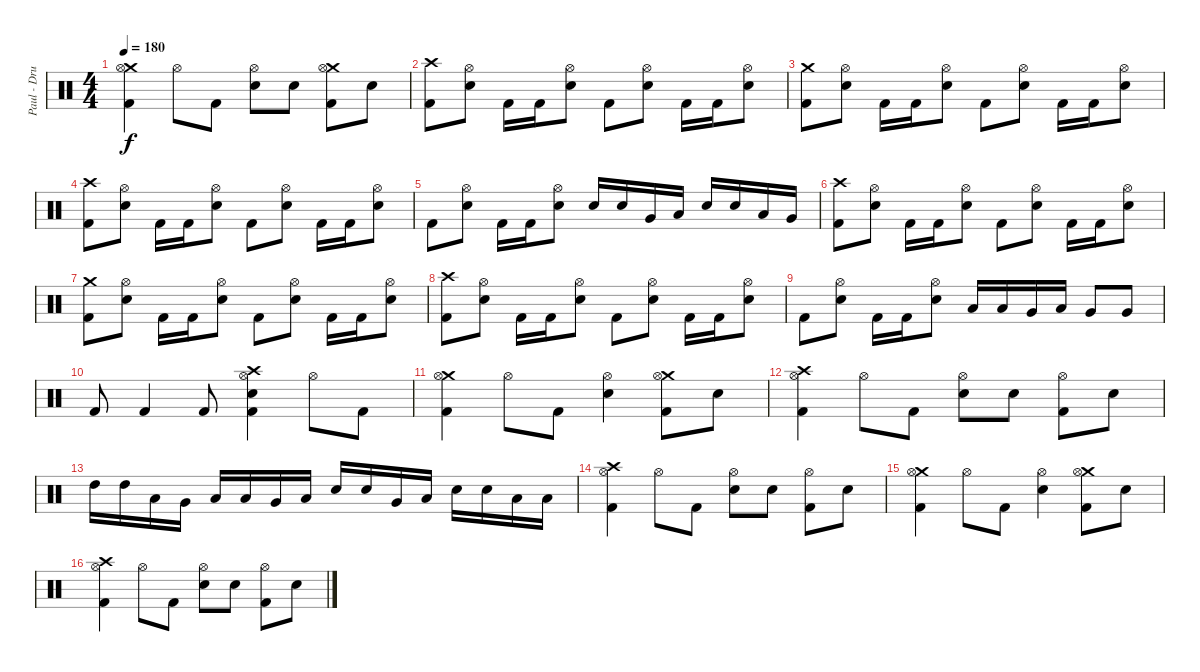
\track ("Paul - Drums" "Paul - Dru") {instrument percussion}
\staff {score}
\articulation defaults
\ts (4 4)
\tempo 180
\clef neutral
\ks c
("Crash medium (hit)" "Hi-Hat (open)" "Kick (hit) 2").4{dy f} "Hi-Hat (open)".8 "Kick (hit) 2".8 ("Hi-Hat (open)" "Electric Snare (hit)").8 "Electric Snare (hit)".8 ("Crash medium (hit)" "Hi-Hat (open)" "Kick (hit) 2").8 "Electric Snare (hit)".8 |
("Crash high (hit)" "Kick (hit) 2").8 ("Hi-Hat (open)" "Electric Snare (hit)").8 "Kick (hit) 2".16 "Kick (hit) 2".16 ("Hi-Hat (open)" "Electric Snare (hit)").8 "Kick (hit) 2".8 ("Hi-Hat (open)" "Electric Snare (hit)").8 "Kick (hit) 2".16 "Kick (hit) 2".16 ("Hi-Hat (open)" "Electric Snare (hit)").8 |
("Crash medium (hit)" "Kick (hit) 2").8 ("Hi-Hat (open)" "Electric Snare (hit)").8 "Kick (hit) 2".16 "Kick (hit) 2".16 ("Hi-Hat (open)" "Electric Snare (hit)").8 "Kick (hit) 2".8 ("Hi-Hat (open)" "Electric Snare (hit)").8 "Kick (hit) 2".16 "Kick (hit) 2".16 ("Hi-Hat (open)" "Electric Snare (hit)").8 |
("Crash high (hit)" "Kick (hit) 2").8 ("Hi-Hat (open)" "Electric Snare (hit)").8 "Kick (hit) 2".16 "Kick (hit) 2".16 ("Hi-Hat (open)" "Electric Snare (hit)").8 "Kick (hit) 2".8 ("Hi-Hat (open)" "Electric Snare (hit)").8 "Kick (hit) 2".16 "Kick (hit) 2".16 ("Hi-Hat (open)" "Electric Snare (hit)").8 |
"Kick (hit) 2".8 ("Hi-Hat (open)" "Electric Snare (hit)").8 "Kick (hit) 2".16 "Kick (hit) 2".16 ("Hi-Hat (open)" "Electric Snare (hit)").8 "Electric Snare (hit)".16 "Electric Snare (hit)".16 "Very Low Tom (hit)".16 "Low Tom (hit)".16 "Electric Snare (hit)".16 "Electric Snare (hit)".16 "Low Tom (hit)".16 "Very Low Tom (hit)".16 |
("Crash high (hit)" "Kick (hit) 2").8 ("Hi-Hat (open)" "Electric Snare (hit)").8 "Kick (hit) 2".16 "Kick (hit) 2".16 ("Hi-Hat (open)" "Electric Snare (hit)").8 "Kick (hit) 2".8 ("Hi-Hat (open)" "Electric Snare (hit)").8 "Kick (hit) 2".16 "Kick (hit) 2".16 ("Hi-Hat (open)" "Electric Snare (hit)").8 |
("Crash medium (hit)" "Kick (hit) 2").8 ("Hi-Hat (open)" "Electric Snare (hit)").8 "Kick (hit) 2".16 "Kick (hit) 2".16 ("Hi-Hat (open)" "Electric Snare (hit)").8 "Kick (hit) 2".8 ("Hi-Hat (open)" "Electric Snare (hit)").8 "Kick (hit) 2".16 "Kick (hit) 2".16 ("Hi-Hat (open)" "Electric Snare (hit)").8 |
("Crash high (hit)" "Kick (hit) 2").8 ("Hi-Hat (open)" "Electric Snare (hit)").8 "Kick (hit) 2".16 "Kick (hit) 2".16 ("Hi-Hat (open)" "Electric Snare (hit)").8 "Kick (hit) 2".8 ("Hi-Hat (open)" "Electric Snare (hit)").8 "Kick (hit) 2".16 "Kick (hit) 2".16 ("Hi-Hat (open)" "Electric Snare (hit)").8 |
"Kick (hit) 2".8 ("Hi-Hat (open)" "Electric Snare (hit)").8 "Kick (hit) 2".16 "Kick (hit) 2".16 ("Hi-Hat (open)" "Electric Snare (hit)").8 "Low Tom (hit)".16 "Low Tom (hit)".16 "Very Low Tom (hit)".16 "Low Floor Tom (hit)".16 "Very Low Tom (hit)".8 "Very Low Tom (hit)".8 |
"Kick (hit) 2".8 "Kick (hit) 2".4 "Kick (hit) 2".8 ("Crash high (hit)" "Hi-Hat (open)" "Electric Snare (hit)" "Kick (hit) 2").4 "Hi-Hat (open)".8 "Kick (hit) 2".8 |
("Crash medium (hit)" "Hi-Hat (open)" "Kick (hit) 2").4 "Hi-Hat (open)".8 "Kick (hit) 2".8 ("Hi-Hat (open)" "Electric Snare (hit)").4 ("Crash medium (hit)" "Hi-Hat (open)" "Kick (hit) 2").8 "Electric Snare (hit)".8 |
("Crash high (hit)" "Hi-Hat (open)" "Kick (hit) 2").4 "Hi-Hat (open)".8 "Kick (hit) 2".8 ("Hi-Hat (open)" "Electric Snare (hit)").8 "Electric Snare (hit)".8 ("Hi-Hat (open)" "Kick (hit) 2").8 "Electric Snare (hit)".8 |
"High Tom (hit)".16 "High Tom (hit)".16 "Low Tom (hit)".16 "Very Low Tom (hit)".16 "Low Tom (hit)".16 "Low Tom (hit)".16 "Very Low Tom (hit)".16 "Low Floor Tom (hit)".16 "Electric Snare (hit)".16 "Electric Snare (hit)".16 "Very Low Tom (hit)".16 "Low Floor Tom (hit)".16 "Electric Snare (hit)".16 "Electric Snare (hit)".16 "Low Floor Tom (hit)".16 "Low Floor Tom (hit)".16 |
("Crash high (hit)" "Hi-Hat (open)" "Kick (hit) 2").4 "Hi-Hat (open)".8 "Kick (hit) 2".8 ("Hi-Hat (open)" "Electric Snare (hit)").8 "Electric Snare (hit)".8 ("Hi-Hat (open)" "Kick (hit) 2").8 "Electric Snare (hit)".8 |
("Crash medium (hit)" "Hi-Hat (open)" "Kick (hit) 2").4 "Hi-Hat (open)".8 "Kick (hit) 2".8 ("Hi-Hat (open)" "Electric Snare (hit)").4 ("Crash medium (hit)" "Hi-Hat (open)" "Kick (hit) 2").8 "Electric Snare (hit)".8 |
("Crash high (hit)" "Hi-Hat (open)" "Kick (hit) 2").4 "Hi-Hat (open)".8 "Kick (hit) 2".8 ("Hi-Hat (open)" "Electric Snare (hit)").8 "Electric Snare (hit)".8 ("Hi-Hat (open)" "Kick (hit) 2").8 "Electric Snare (hit)".8
